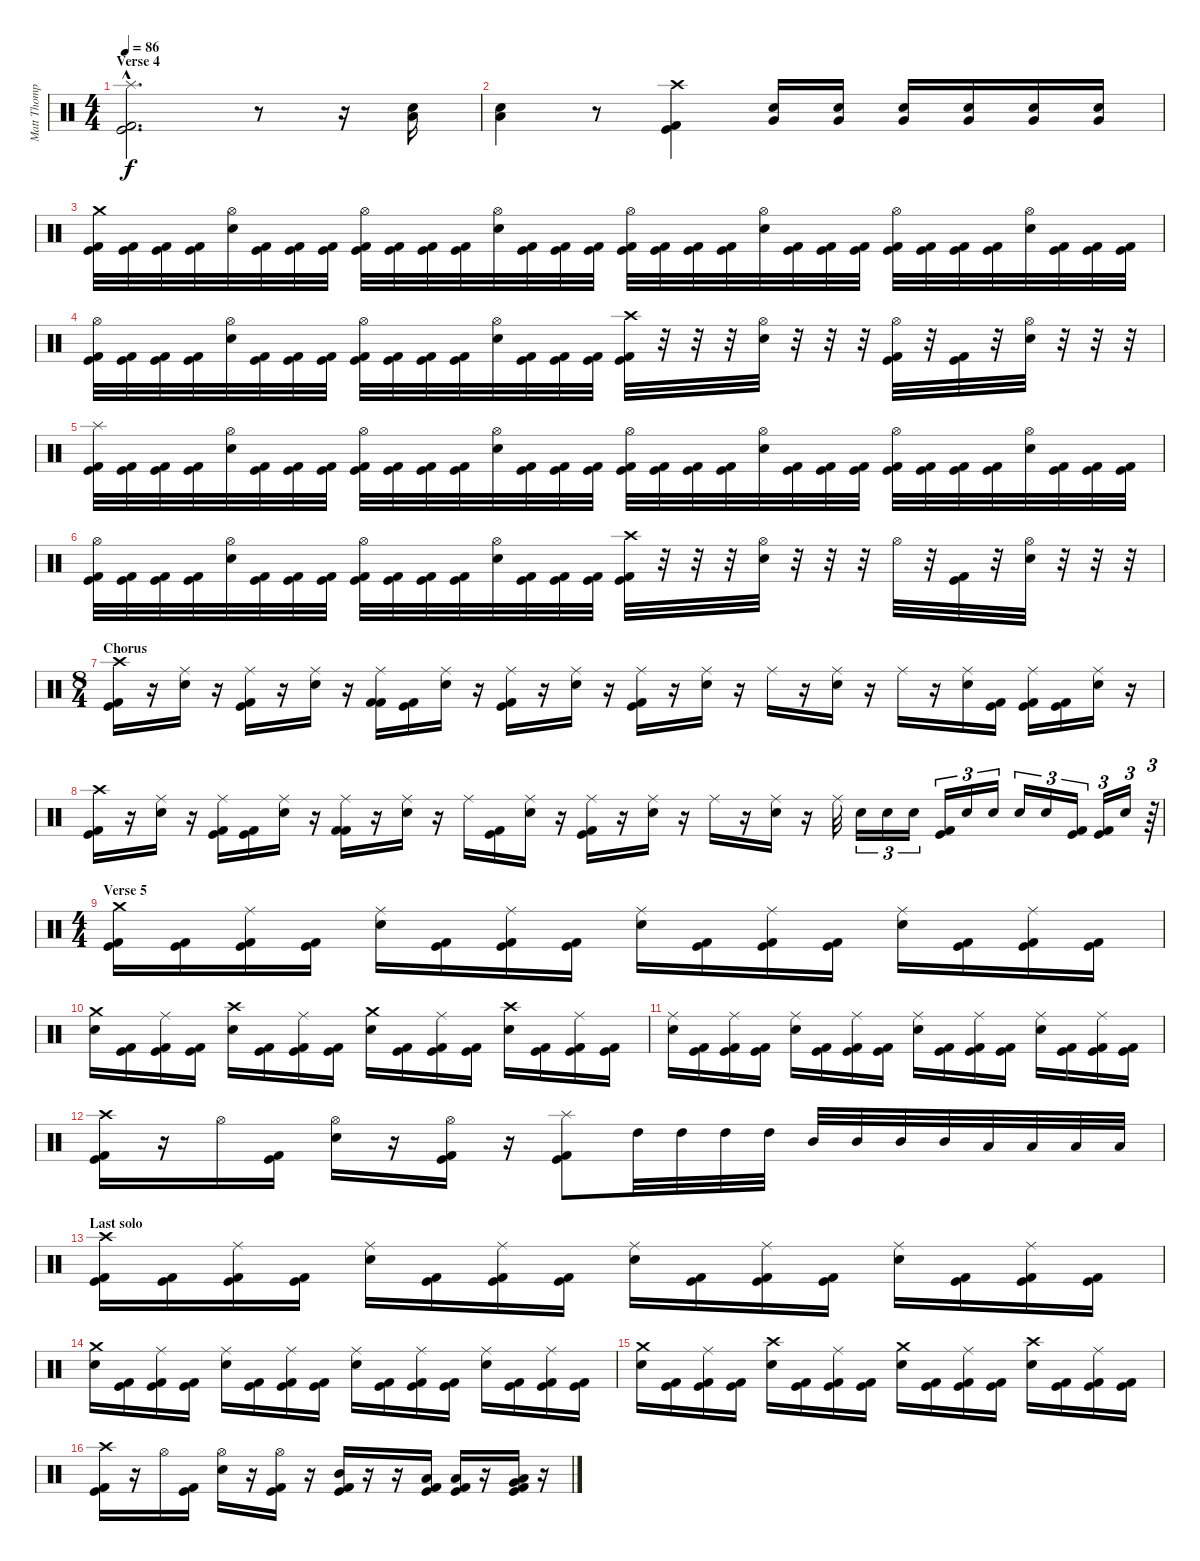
\track ("Matt Thompson" "Matt Thomp") {instrument percussion}
\staff {score}
\articulation defaults
\ts (4 4)
\section ("" "Verse 4")
\tempo 86
\clef neutral
\ks c
("Splash (hit)"{hac} "Kick (hit)"{hac} "Kick (hit) 2"{hac}).2{d dy f} r.8 r.16 ("Low Tom (hit)" "Snare (hit) 2").16 |
("Low Tom (hit)" "Snare (hit) 2").4 r.8 ("Crash high (hit)" "Kick (hit)" "Kick (hit) 2").4 ("Very Low Tom (hit)" "Snare (hit) 2").16 ("Very Low Tom (hit)" "Snare (hit) 2").16 ("Very Low Tom (hit)" "Snare (hit) 2").16 ("Very Low Tom (hit)" "Snare (hit) 2").16 ("Very Low Tom (hit)" "Snare (hit) 2").16 ("Very Low Tom (hit)" "Snare (hit) 2").16 |
("Crash medium (hit)" "Kick (hit)" "Kick (hit) 2").32 ("Kick (hit)" "Kick (hit) 2").32 ("Kick (hit)" "Kick (hit) 2").32 ("Kick (hit)" "Kick (hit) 2").32 ("Hi-Hat (open)" "Snare (hit) 2").32 ("Kick (hit)" "Kick (hit) 2").32 ("Kick (hit)" "Kick (hit) 2").32 ("Kick (hit)" "Kick (hit) 2").32 ("Hi-Hat (open)" "Kick (hit)" "Kick (hit) 2").32 ("Kick (hit)" "Kick (hit) 2").32 ("Kick (hit)" "Kick (hit) 2").32 ("Kick (hit)" "Kick (hit) 2").32 ("Hi-Hat (open)" "Snare (hit) 2").32 ("Kick (hit)" "Kick (hit) 2").32 ("Kick (hit)" "Kick (hit) 2").32 ("Kick (hit)" "Kick (hit) 2").32 ("Hi-Hat (open)" "Kick (hit)" "Kick (hit) 2").32 ("Kick (hit)" "Kick (hit) 2").32 ("Kick (hit)" "Kick (hit) 2").32 ("Kick (hit)" "Kick (hit) 2").32 ("Hi-Hat (open)" "Snare (hit) 2").32 ("Kick (hit)" "Kick (hit) 2").32 ("Kick (hit)" "Kick (hit) 2").32 ("Kick (hit)" "Kick (hit) 2").32 ("Hi-Hat (open)" "Kick (hit)" "Kick (hit) 2").32 ("Kick (hit)" "Kick (hit) 2").32 ("Kick (hit)" "Kick (hit) 2").32 ("Kick (hit)" "Kick (hit) 2").32 ("Hi-Hat (open)" "Snare (hit) 2").32 ("Kick (hit)" "Kick (hit) 2").32 ("Kick (hit)" "Kick (hit) 2").32 ("Kick (hit)" "Kick (hit) 2").32 |
("Hi-Hat (open)" "Kick (hit)" "Kick (hit) 2").32 ("Kick (hit)" "Kick (hit) 2").32 ("Kick (hit)" "Kick (hit) 2").32 ("Kick (hit)" "Kick (hit) 2").32 ("Hi-Hat (open)" "Snare (hit) 2").32 ("Kick (hit)" "Kick (hit) 2").32 ("Kick (hit)" "Kick (hit) 2").32 ("Kick (hit)" "Kick (hit) 2").32 ("Hi-Hat (open)" "Kick (hit)" "Kick (hit) 2").32 ("Kick (hit)" "Kick (hit) 2").32 ("Kick (hit)" "Kick (hit) 2").32 ("Kick (hit)" "Kick (hit) 2").32 ("Hi-Hat (open)" "Snare (hit) 2").32 ("Kick (hit)" "Kick (hit) 2").32 ("Kick (hit)" "Kick (hit) 2").32 ("Kick (hit)" "Kick (hit) 2").32 ("Crash high (hit)" "Kick (hit)" "Kick (hit) 2").32 r.32 r.32 r.32 ("Hi-Hat (open)" "Snare (hit) 2").32 r.32 r.32 r.32 ("Hi-Hat (open)" "Kick (hit)" "Kick (hit) 2").32 r.32 ("Kick (hit)" "Kick (hit) 2").32 r.32 ("Hi-Hat (open)" "Snare (hit) 2").32 r.32 r.32 r.32 |
("Splash (hit)" "Kick (hit)" "Kick (hit) 2").32 ("Kick (hit)" "Kick (hit) 2").32 ("Kick (hit)" "Kick (hit) 2").32 ("Kick (hit)" "Kick (hit) 2").32 ("Hi-Hat (open)" "Snare (hit) 2").32 ("Kick (hit)" "Kick (hit) 2").32 ("Kick (hit)" "Kick (hit) 2").32 ("Kick (hit)" "Kick (hit) 2").32 ("Hi-Hat (open)" "Kick (hit)" "Kick (hit) 2").32 ("Kick (hit)" "Kick (hit) 2").32 ("Kick (hit)" "Kick (hit) 2").32 ("Kick (hit)" "Kick (hit) 2").32 ("Hi-Hat (open)" "Snare (hit) 2").32 ("Kick (hit)" "Kick (hit) 2").32 ("Kick (hit)" "Kick (hit) 2").32 ("Kick (hit)" "Kick (hit) 2").32 ("Hi-Hat (open)" "Kick (hit)" "Kick (hit) 2").32 ("Kick (hit)" "Kick (hit) 2").32 ("Kick (hit)" "Kick (hit) 2").32 ("Kick (hit)" "Kick (hit) 2").32 ("Hi-Hat (open)" "Snare (hit) 2").32 ("Kick (hit)" "Kick (hit) 2").32 ("Kick (hit)" "Kick (hit) 2").32 ("Kick (hit)" "Kick (hit) 2").32 ("Hi-Hat (open)" "Kick (hit)" "Kick (hit) 2").32 ("Kick (hit)" "Kick (hit) 2").32 ("Kick (hit)" "Kick (hit) 2").32 ("Kick (hit)" "Kick (hit) 2").32 ("Hi-Hat (open)" "Snare (hit) 2").32 ("Kick (hit)" "Kick (hit) 2").32 ("Kick (hit)" "Kick (hit) 2").32 ("Kick (hit)" "Kick (hit) 2").32 |
("Hi-Hat (open)" "Kick (hit)" "Kick (hit) 2").32 ("Kick (hit)" "Kick (hit) 2").32 ("Kick (hit)" "Kick (hit) 2").32 ("Kick (hit)" "Kick (hit) 2").32 ("Hi-Hat (open)" "Snare (hit) 2").32 ("Kick (hit)" "Kick (hit) 2").32 ("Kick (hit)" "Kick (hit) 2").32 ("Kick (hit)" "Kick (hit) 2").32 ("Hi-Hat (open)" "Kick (hit)" "Kick (hit) 2").32 ("Kick (hit)" "Kick (hit) 2").32 ("Kick (hit)" "Kick (hit) 2").32 ("Kick (hit)" "Kick (hit) 2").32 ("Hi-Hat (open)" "Snare (hit) 2").32 ("Kick (hit)" "Kick (hit) 2").32 ("Kick (hit)" "Kick (hit) 2").32 ("Kick (hit)" "Kick (hit) 2").32 ("Crash high (hit)" "Kick (hit)" "Kick (hit) 2").32 r.32 r.32 r.32 ("Hi-Hat (open)" "Snare (hit) 2").32 r.32 r.32 r.32 "Hi-Hat (open)".32 r.32 ("Kick (hit)" "Kick (hit) 2").32 r.32 ("Hi-Hat (open)" "Snare (hit) 2").32 r.32 r.32 r.32 |
\ts (8 4)
\section ("" "Chorus")
("Crash high (hit)" "Kick (hit)" "Kick (hit) 2").16 r.16 ("Ride (middle)" "Snare (hit) 2").16 r.16 ("Ride (middle)" "Kick (hit)" "Kick (hit) 2").16 r.16 ("Ride (middle)" "Snare (hit) 2").16 r.16 ("Ride (middle)" "Kick (hit) 2" "Kick (hit) 2").16 ("Kick (hit)" "Kick (hit) 2").16 ("Ride (middle)" "Snare (hit) 2").16 r.16 ("Ride (middle)" "Kick (hit)" "Kick (hit) 2").16 r.16 ("Ride (middle)" "Snare (hit) 2").16 r.16 ("Ride (middle)" "Kick (hit)" "Kick (hit) 2").16 r.16 ("Ride (middle)" "Snare (hit) 2").16 r.16 "Ride (middle)".16 r.16 ("Ride (middle)" "Snare (hit) 2").16 r.16 "Ride (middle)".16 r.16 ("Ride (middle)" "Snare (hit) 2").16 ("Kick (hit)" "Kick (hit) 2").16 ("Ride (middle)" "Kick (hit)" "Kick (hit) 2").16 ("Kick (hit)" "Kick (hit) 2").16 ("Ride (middle)" "Snare (hit) 2").16 r.16 |
("Crash high (hit)" "Kick (hit)" "Kick (hit) 2").16 r.16 ("Ride (middle)" "Snare (hit) 2").16 r.16 ("Ride (middle)" "Kick (hit)" "Kick (hit) 2").16 ("Kick (hit)" "Kick (hit) 2").16 ("Ride (middle)" "Snare (hit) 2").16 r.16 ("Ride (middle)" "Kick (hit) 2" "Kick (hit) 2").16 r.16 ("Ride (middle)" "Snare (hit) 2").16 r.16 "Ride (middle)".16 ("Kick (hit)" "Kick (hit) 2").16 ("Ride (middle)" "Snare (hit) 2").16 r.16 ("Ride (middle)" "Kick (hit)" "Kick (hit) 2").16 r.16 ("Ride (middle)" "Snare (hit) 2").16 r.16 "Ride (middle)".16 r.16 ("Ride (middle)" "Snare (hit) 2").16 r.16 "Ride (middle)".32 "Snare (hit) 2".16{tu (3 2)} "Snare (hit) 2".16{tu (3 2)} "Snare (hit) 2".16{tu (3 2)} ("Kick (hit)" "Kick (hit) 2").16{tu (3 2)} "Snare (hit) 2".16{tu (3 2)} "Snare (hit) 2".16{tu (3 2)} "Snare (hit) 2".16{tu (3 2)} "Snare (hit) 2".16{tu (3 2)} ("Kick (hit)" "Kick (hit) 2").16{tu (3 2)} ("Kick (hit)" "Kick (hit) 2").16{tu (3 2)} "Snare (hit) 2".16{tu (3 2)} r.64{tu (3 2)} |
\ts (4 4)
\section ("" "Verse 5")
("Crash medium (hit)" "Kick (hit)" "Kick (hit) 2").16 ("Kick (hit)" "Kick (hit) 2").16 ("Ride (middle)" "Kick (hit)" "Kick (hit) 2").16 ("Kick (hit)" "Kick (hit) 2").16 ("Ride (middle)" "Snare (hit) 2").16 ("Kick (hit)" "Kick (hit) 2").16 ("Ride (middle)" "Kick (hit)" "Kick (hit) 2").16 ("Kick (hit)" "Kick (hit) 2").16 ("Ride (middle)" "Snare (hit) 2").16 ("Kick (hit)" "Kick (hit) 2").16 ("Ride (middle)" "Kick (hit)" "Kick (hit) 2").16 ("Kick (hit)" "Kick (hit) 2").16 ("Ride (middle)" "Snare (hit) 2").16 ("Kick (hit)" "Kick (hit) 2").16 ("Ride (middle)" "Kick (hit)" "Kick (hit) 2").16 ("Kick (hit)" "Kick (hit) 2").16 |
("Crash medium (hit)" "Snare (hit) 2").16 ("Kick (hit)" "Kick (hit) 2").16 ("Ride (middle)" "Kick (hit)" "Kick (hit) 2").16 ("Kick (hit)" "Kick (hit) 2").16 ("Crash high (hit)" "Snare (hit) 2").16 ("Kick (hit)" "Kick (hit) 2").16 ("Ride (middle)" "Kick (hit)" "Kick (hit) 2").16 ("Kick (hit)" "Kick (hit) 2").16 ("Crash medium (hit)" "Snare (hit) 2").16 ("Kick (hit)" "Kick (hit) 2").16 ("Ride (middle)" "Kick (hit)" "Kick (hit) 2").16 ("Kick (hit)" "Kick (hit) 2").16 ("Crash high (hit)" "Snare (hit) 2").16 ("Kick (hit)" "Kick (hit) 2").16 ("Ride (middle)" "Kick (hit)" "Kick (hit) 2").16 ("Kick (hit)" "Kick (hit) 2").16 |
("Ride (middle)" "Snare (hit) 2").16 ("Kick (hit)" "Kick (hit) 2").16 ("Ride (middle)" "Kick (hit)" "Kick (hit) 2").16 ("Kick (hit)" "Kick (hit) 2").16 ("Ride (middle)" "Snare (hit) 2").16 ("Kick (hit)" "Kick (hit) 2").16 ("Ride (middle)" "Kick (hit)" "Kick (hit) 2").16 ("Kick (hit)" "Kick (hit) 2").16 ("Ride (middle)" "Snare (hit) 2").16 ("Kick (hit)" "Kick (hit) 2").16 ("Ride (middle)" "Kick (hit)" "Kick (hit) 2").16 ("Kick (hit)" "Kick (hit) 2").16 ("Ride (middle)" "Snare (hit) 2").16 ("Kick (hit)" "Kick (hit) 2").16 ("Ride (middle)" "Kick (hit)" "Kick (hit) 2").16 ("Kick (hit)" "Kick (hit) 2").16 |
("Crash high (hit)" "Kick (hit)" "Kick (hit) 2").16 r.16 "Hi-Hat (open)".16 ("Kick (hit)" "Kick (hit) 2").16 ("Hi-Hat (open)" "Snare (hit) 2").16 r.16 ("Hi-Hat (open)" "Kick (hit)" "Kick (hit) 2").16 r.16 ("Splash (hit)" "Kick (hit)" "Kick (hit) 2").8 "High Tom (hit)".32 "High Tom (hit)".32 "High Tom (hit)".32 "High Tom (hit)".32 "Mid Tom (hit)".32 "Mid Tom (hit)".32 "Mid Tom (hit)".32 "Mid Tom (hit)".32 "Low Tom (hit)".32 "Low Tom (hit)".32 "Low Tom (hit)".32 "Low Tom (hit)".32 |
\section ("" "Last solo")
("Crash high (hit)" "Kick (hit)" "Kick (hit) 2").16 ("Kick (hit)" "Kick (hit) 2").16 ("Ride (middle)" "Kick (hit)" "Kick (hit) 2").16 ("Kick (hit)" "Kick (hit) 2").16 ("Ride (middle)" "Snare (hit) 2").16 ("Kick (hit)" "Kick (hit) 2").16 ("Ride (middle)" "Kick (hit)" "Kick (hit) 2").16 ("Kick (hit)" "Kick (hit) 2").16 ("Ride (middle)" "Snare (hit) 2").16 ("Kick (hit)" "Kick (hit) 2").16 ("Ride (middle)" "Kick (hit)" "Kick (hit) 2").16 ("Kick (hit)" "Kick (hit) 2").16 ("Ride (middle)" "Snare (hit) 2").16 ("Kick (hit)" "Kick (hit) 2").16 ("Ride (middle)" "Kick (hit)" "Kick (hit) 2").16 ("Kick (hit)" "Kick (hit) 2").16 |
("Crash medium (hit)" "Snare (hit) 2").16 ("Kick (hit)" "Kick (hit) 2").16 ("Ride (middle)" "Kick (hit)" "Kick (hit) 2").16 ("Kick (hit)" "Kick (hit) 2").16 ("Ride (middle)" "Snare (hit) 2").16 ("Kick (hit)" "Kick (hit) 2").16 ("Ride (middle)" "Kick (hit)" "Kick (hit) 2").16 ("Kick (hit)" "Kick (hit) 2").16 ("Ride (middle)" "Snare (hit) 2").16 ("Kick (hit)" "Kick (hit) 2").16 ("Ride (middle)" "Kick (hit)" "Kick (hit) 2").16 ("Kick (hit)" "Kick (hit) 2").16 ("Ride (middle)" "Snare (hit) 2").16 ("Kick (hit)" "Kick (hit) 2").16 ("Ride (middle)" "Kick (hit)" "Kick (hit) 2").16 ("Kick (hit)" "Kick (hit) 2").16 |
("Crash medium (hit)" "Snare (hit) 2").16 ("Kick (hit)" "Kick (hit) 2").16 ("Ride (middle)" "Kick (hit)" "Kick (hit) 2").16 ("Kick (hit)" "Kick (hit) 2").16 ("Crash high (hit)" "Snare (hit) 2").16 ("Kick (hit)" "Kick (hit) 2").16 ("Ride (middle)" "Kick (hit)" "Kick (hit) 2").16 ("Kick (hit)" "Kick (hit) 2").16 ("Crash medium (hit)" "Snare (hit) 2").16 ("Kick (hit)" "Kick (hit) 2").16 ("Ride (middle)" "Kick (hit)" "Kick (hit) 2").16 ("Kick (hit)" "Kick (hit) 2").16 ("Crash high (hit)" "Snare (hit) 2").16 ("Kick (hit)" "Kick (hit) 2").16 ("Ride (middle)" "Kick (hit)" "Kick (hit) 2").16 ("Kick (hit)" "Kick (hit) 2").16 |
("Crash high (hit)" "Kick (hit)" "Kick (hit) 2").16 r.16 "Hi-Hat (open)".16 ("Kick (hit)" "Kick (hit) 2").16 ("Hi-Hat (open)" "Snare (hit) 2").16 r.16 ("Hi-Hat (open)" "Kick (hit)" "Kick (hit) 2").16 r.16 ("Mid Tom (hit)" "Kick (hit)" "Kick (hit) 2").16 r.16 r.16 ("Low Tom (hit)" "Kick (hit)" "Kick (hit) 2").16 ("Low Tom (hit)" "Kick (hit)" "Kick (hit) 2").16 r.16 ("Low Tom (hit)" "Very Low Tom (hit)" "Kick (hit)" "Kick (hit) 2").16 r.16
